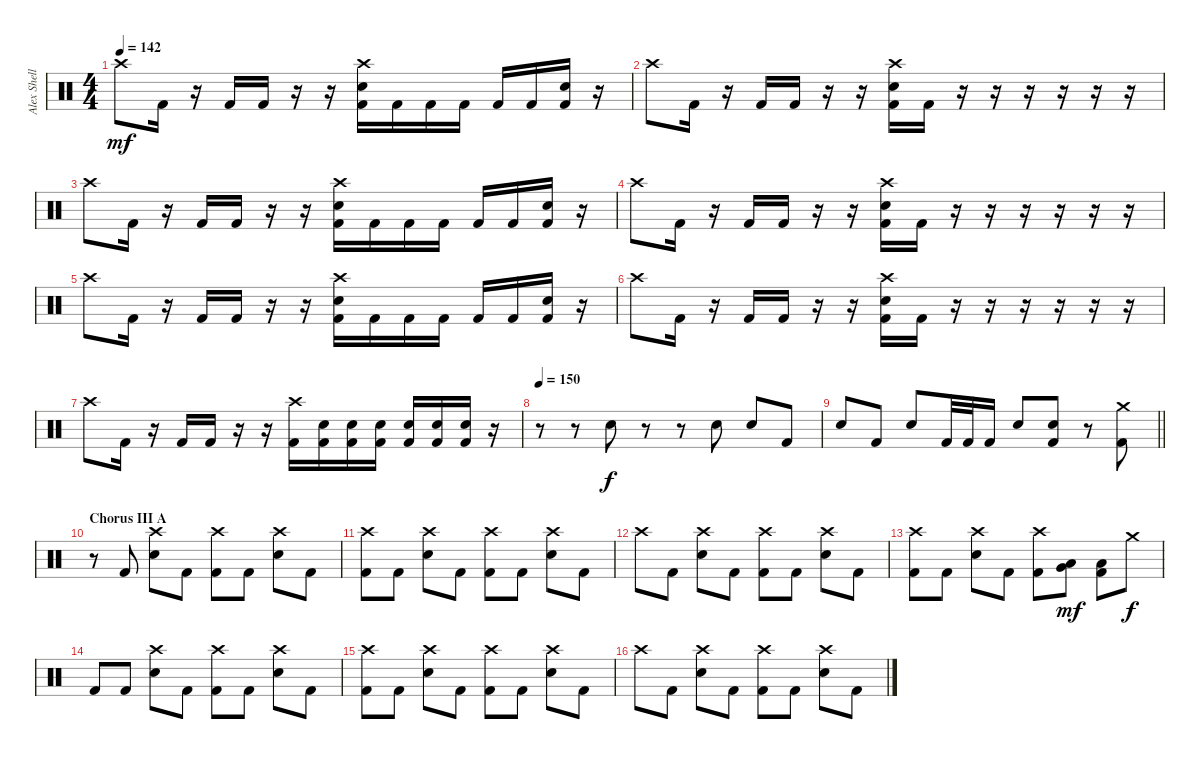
\track ("Alex Shellnutt" "Alex Shell") {instrument percussion}
\staff {score}
\articulation defaults
\ts (4 4)
\tempo 142
\clef neutral
\ks c "Crash high (hit)".8{dy mf} "Kick (hit) 2".16
r.16 "Kick (hit) 2".16 "Kick (hit) 2".16 r.16 r.16 ("Crash high (hit)" "Snare (hit) 2" "Kick (hit) 2").16 "Kick (hit) 2".16 "Kick (hit) 2".16 "Kick (hit) 2".16 "Kick (hit) 2".16 "Kick (hit) 2".16 ("Snare (hit) 2" "Kick (hit) 2").16 r.16 |
"Crash high (hit)".8 "Kick (hit) 2".16 r.16 "Kick (hit) 2".16 "Kick (hit) 2".16 r.16 r.16 ("Crash high (hit)" "Snare (hit) 2" "Kick (hit) 2").16 "Kick (hit) 2".16 r.16 r.16 r.16 r.16 r.16 r.16 |
"Crash high (hit)".8 "Kick (hit) 2".16 r.16 "Kick (hit) 2".16 "Kick (hit) 2".16 r.16 r.16 ("Crash high (hit)" "Snare (hit) 2" "Kick (hit) 2").16 "Kick (hit) 2".16 "Kick (hit) 2".16 "Kick (hit) 2".16 "Kick (hit) 2".16 "Kick (hit) 2".16 ("Snare (hit) 2" "Kick (hit) 2").16 r.16 |
"Crash high (hit)".8 "Kick (hit) 2".16 r.16 "Kick (hit) 2".16 "Kick (hit) 2".16 r.16 r.16 ("Crash high (hit)" "Snare (hit) 2" "Kick (hit) 2").16 "Kick (hit) 2".16 r.16 r.16 r.16 r.16 r.16 r.16 |
"Crash high (hit)".8 "Kick (hit) 2".16 r.16 "Kick (hit) 2".16 "Kick (hit) 2".16 r.16 r.16 ("Crash high (hit)" "Snare (hit) 2" "Kick (hit) 2").16 "Kick (hit) 2".16 "Kick (hit) 2".16 "Kick (hit) 2".16 "Kick (hit) 2".16 "Kick (hit) 2".16 ("Snare (hit) 2" "Kick (hit) 2").16 r.16 |
"Crash high (hit)".8 "Kick (hit) 2".16 r.16 "Kick (hit) 2".16 "Kick (hit) 2".16 r.16 r.16 ("Crash high (hit)" "Snare (hit) 2" "Kick (hit) 2").16 "Kick (hit) 2".16 r.16 r.16 r.16 r.16 r.16 r.16 |
"Crash high (hit)".8 "Kick (hit) 2".16 r.16 "Kick (hit) 2".16 "Kick (hit) 2".16 r.16 r.16 ("Crash high (hit)" "Kick (hit) 2").16 ("Snare (hit) 2" "Kick (hit) 2").16 ("Snare (hit) 2" "Kick (hit) 2").16 ("Snare (hit) 2" "Kick (hit) 2").16 ("Snare (hit) 2" "Kick (hit) 2").16 ("Snare (hit) 2" "Kick (hit) 2").16 ("Snare (hit) 2" "Kick (hit) 2").16 r.16 |
\tempo 150
r.8 r.8 "Snare (hit) 2".8{dy f} r.8 r.8 "Snare (hit) 2".8 "Snare (hit) 2".8 "Kick (hit) 2".8 |
\barLineRight lightlight "Snare (hit) 2".8 "Kick (hit) 2".8 "Snare (hit) 2".8 "Kick (hit) 2".32 "Kick (hit) 2".32 "Kick (hit) 2".16 "Snare (hit) 2".8
("Snare (hit) 2" "Kick (hit) 2").8 r.8 ("Crash medium (hit)" "Kick (hit) 2").8 |
\section ("" "Chorus III A")
r.8 "Kick (hit) 2".8 ("Crash high (hit)" "Snare (hit) 2").8 "Kick (hit) 2".8 ("Crash high (hit)" "Kick (hit) 2").8 "Kick (hit) 2".8 ("Crash high (hit)" "Snare (hit) 2").8 "Kick (hit) 2".8 |
("Crash high (hit)" "Kick (hit) 2").8 "Kick (hit) 2".8 ("Crash high (hit)" "Snare (hit) 2").8 "Kick (hit) 2".8 ("Crash high (hit)" "Kick (hit) 2").8 "Kick (hit) 2".8 ("Crash high (hit)" "Snare (hit) 2").8 "Kick (hit) 2".8 |
"Crash high (hit)".8 "Kick (hit) 2".8 ("Crash high (hit)" "Snare (hit) 2").8 "Kick (hit) 2".8 ("Crash high (hit)" "Kick (hit) 2").8 "Kick (hit) 2".8 ("Crash high (hit)" "Snare (hit) 2").8 "Kick (hit) 2".8 |
("Crash high (hit)" "Kick (hit) 2").8 "Kick (hit) 2".8 ("Crash high (hit)" "Snare (hit) 2").8 "Kick (hit) 2".8 ("Crash high (hit)" "Kick (hit) 2").8 ("Very Low Tom (hit)" "Low Floor Tom (hit)").8{dy mf} ("Low Floor Tom (hit)" "Kick (hit) 2").8 "Crash medium (hit)".8{dy f} |
"Kick (hit) 2".8 "Kick (hit) 2".8 ("Crash high (hit)" "Snare (hit) 2").8 "Kick (hit) 2".8 ("Crash high (hit)" "Kick (hit) 2").8 "Kick (hit) 2".8 ("Crash high (hit)" "Snare (hit) 2").8 "Kick (hit) 2".8 |
("Crash high (hit)" "Kick (hit) 2").8 "Kick (hit) 2".8 ("Crash high (hit)" "Snare (hit) 2").8 "Kick (hit) 2".8 ("Crash high (hit)" "Kick (hit) 2").8 "Kick (hit) 2".8 ("Crash high (hit)" "Snare (hit) 2").8 "Kick (hit) 2".8 |
"Crash high (hit)".8 "Kick (hit) 2".8 ("Crash high (hit)" "Snare (hit) 2").8 "Kick (hit) 2".8 ("Crash high (hit)" "Kick (hit) 2").8 "Kick (hit) 2".8 ("Crash high (hit)" "Snare (hit) 2").8 "Kick (hit) 2".8
